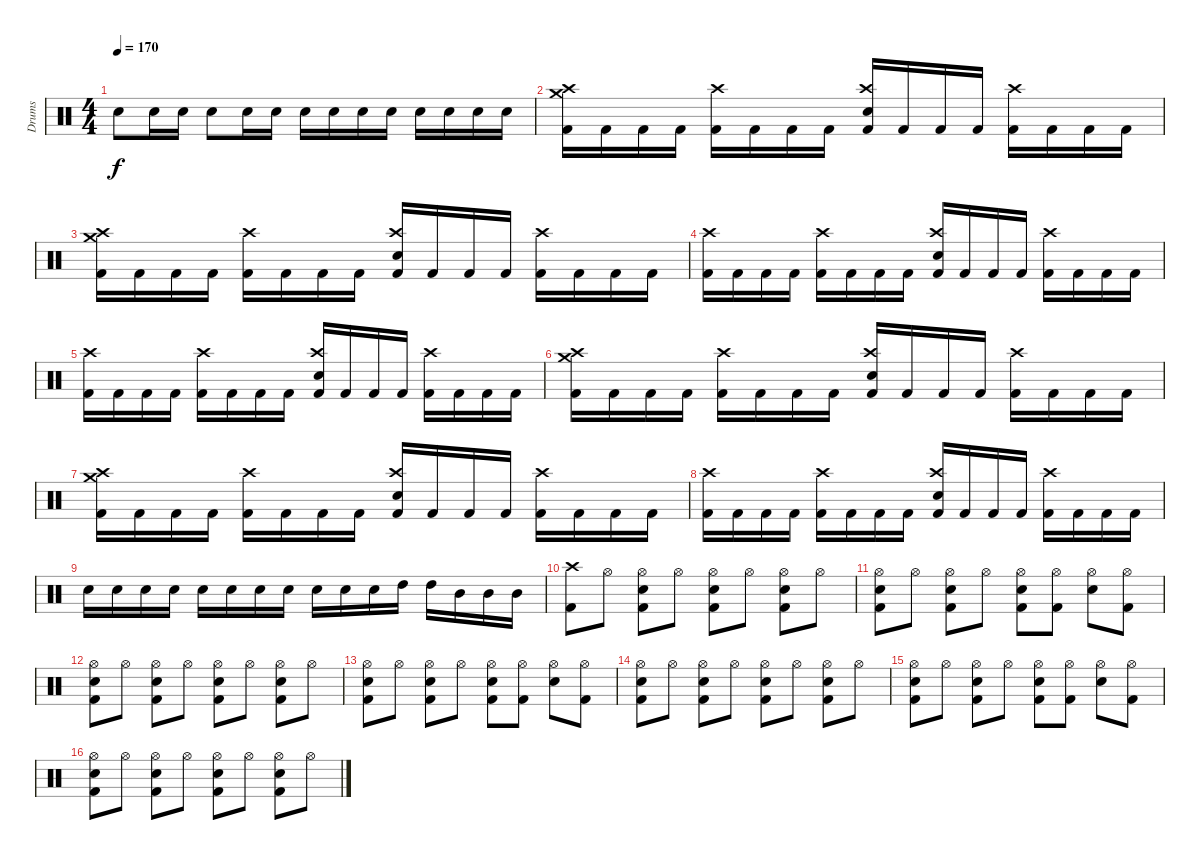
\track ("Drums" "Drums") {instrument percussion}
\staff {score}
\articulation defaults
\ts (4 4)
\tempo 170
\clef neutral
\ks c "Snare (hit) 2".8{dy f} "Snare (hit) 2".16 "Snare (hit) 2".16 "Snare (hit) 2".8 "Snare (hit) 2".16 "Snare (hit) 2".16 "Snare (hit) 2".16 "Snare (hit) 2".16 "Snare (hit) 2".16 "Snare (hit) 2".16 "Snare (hit) 2".16 "Snare (hit) 2".16 "Snare (hit) 2".16 "Snare (hit) 2".16
|
("Crash medium (hit)" "Crash high (hit)" "Kick (hit) 2").16 "Kick (hit) 2".16 "Kick (hit) 2".16 "Kick (hit) 2".16 ("Crash high (hit)" "Kick (hit) 2").16 "Kick (hit) 2".16 "Kick (hit) 2".16 "Kick (hit) 2".16 ("Crash high (hit)" "Snare (hit) 2" "Kick (hit) 2").16 "Kick (hit) 2".16 "Kick (hit) 2".16 "Kick (hit) 2".16 ("Crash high (hit)" "Kick (hit) 2").16 "Kick (hit) 2".16 "Kick (hit) 2".16 "Kick (hit) 2".16 |
("Crash medium (hit)" "Crash high (hit)" "Kick (hit) 2").16 "Kick (hit) 2".16 "Kick (hit) 2".16 "Kick (hit) 2".16 ("Crash high (hit)" "Kick (hit) 2").16 "Kick (hit) 2".16 "Kick (hit) 2".16 "Kick (hit) 2".16 ("Crash high (hit)" "Snare (hit) 2" "Kick (hit) 2").16 "Kick (hit) 2".16 "Kick (hit) 2".16 "Kick (hit) 2".16 ("Crash high (hit)" "Kick (hit) 2").16 "Kick (hit) 2".16 "Kick (hit) 2".16 "Kick (hit) 2".16 |
("Crash high (hit)" "Kick (hit) 2").16 "Kick (hit) 2".16 "Kick (hit) 2".16 "Kick (hit) 2".16 ("Crash high (hit)" "Kick (hit) 2").16 "Kick (hit) 2".16 "Kick (hit) 2".16 "Kick (hit) 2".16 ("Crash high (hit)" "Snare (hit) 2" "Kick (hit) 2").16 "Kick (hit) 2".16 "Kick (hit) 2".16 "Kick (hit) 2".16 ("Crash high (hit)" "Kick (hit) 2").16 "Kick (hit) 2".16 "Kick (hit) 2".16 "Kick (hit) 2".16 |
("Crash high (hit)" "Kick (hit) 2").16 "Kick (hit) 2".16 "Kick (hit) 2".16 "Kick (hit) 2".16 ("Crash high (hit)" "Kick (hit) 2").16 "Kick (hit) 2".16 "Kick (hit) 2".16 "Kick (hit) 2".16 ("Crash high (hit)" "Snare (hit) 2" "Kick (hit) 2").16 "Kick (hit) 2".16 "Kick (hit) 2".16 "Kick (hit) 2".16 ("Crash high (hit)" "Kick (hit) 2").16 "Kick (hit) 2".16 "Kick (hit) 2".16 "Kick (hit) 2".16 |
("Crash medium (hit)" "Crash high (hit)" "Kick (hit) 2").16 "Kick (hit) 2".16 "Kick (hit) 2".16 "Kick (hit) 2".16 ("Crash high (hit)" "Kick (hit) 2").16 "Kick (hit) 2".16 "Kick (hit) 2".16 "Kick (hit) 2".16 ("Crash high (hit)" "Snare (hit) 2" "Kick (hit) 2").16 "Kick (hit) 2".16 "Kick (hit) 2".16 "Kick (hit) 2".16 ("Crash high (hit)" "Kick (hit) 2").16 "Kick (hit) 2".16 "Kick (hit) 2".16 "Kick (hit) 2".16 |
("Crash medium (hit)" "Crash high (hit)" "Kick (hit) 2").16 "Kick (hit) 2".16 "Kick (hit) 2".16 "Kick (hit) 2".16 ("Crash high (hit)" "Kick (hit) 2").16 "Kick (hit) 2".16 "Kick (hit) 2".16 "Kick (hit) 2".16 ("Crash high (hit)" "Snare (hit) 2" "Kick (hit) 2").16 "Kick (hit) 2".16 "Kick (hit) 2".16 "Kick (hit) 2".16 ("Crash high (hit)" "Kick (hit) 2").16 "Kick (hit) 2".16 "Kick (hit) 2".16 "Kick (hit) 2".16 |
("Crash high (hit)" "Kick (hit) 2").16 "Kick (hit) 2".16 "Kick (hit) 2".16 "Kick (hit) 2".16 ("Crash high (hit)" "Kick (hit) 2").16 "Kick (hit) 2".16 "Kick (hit) 2".16 "Kick (hit) 2".16 ("Crash high (hit)" "Snare (hit) 2" "Kick (hit) 2").16 "Kick (hit) 2".16 "Kick (hit) 2".16 "Kick (hit) 2".16 ("Crash high (hit)" "Kick (hit) 2").16 "Kick (hit) 2".16 "Kick (hit) 2".16 "Kick (hit) 2".16 |
"Snare (hit) 2".16 "Snare (hit) 2".16 "Snare (hit) 2".16 "Snare (hit) 2".16 "Snare (hit) 2".16 "Snare (hit) 2".16 "Snare (hit) 2".16 "Snare (hit) 2".16 "Snare (hit) 2".16 "Snare (hit) 2".16 "Snare (hit) 2".16 "High Tom (hit)".16 "High Tom (hit)".16 "Mid Tom (hit)".16 "Mid Tom (hit)".16 "Mid Tom (hit)".16 |
("Crash high (hit)" "Kick (hit) 2").8 "Hi-Hat (open)".8 ("Hi-Hat (open)" "Snare (hit) 2" "Kick (hit) 2").8 "Hi-Hat (open)".8 ("Hi-Hat (open)" "Snare (hit) 2" "Kick (hit) 2").8 "Hi-Hat (open)".8 ("Hi-Hat (open)" "Snare (hit) 2" "Kick (hit) 2").8 "Hi-Hat (open)".8 |
("Hi-Hat (open)" "Snare (hit) 2" "Kick (hit) 2").8 "Hi-Hat (open)".8 ("Hi-Hat (open)" "Snare (hit) 2" "Kick (hit) 2").8 "Hi-Hat (open)".8 ("Hi-Hat (open)" "Snare (hit) 2" "Kick (hit) 2").8 ("Hi-Hat (open)" "Kick (hit) 2").8 ("Hi-Hat (open)" "Snare (hit) 2").8 ("Hi-Hat (open)" "Kick (hit) 2").8 |
("Hi-Hat (open)" "Snare (hit) 2" "Kick (hit) 2").8 "Hi-Hat (open)".8 ("Hi-Hat (open)" "Snare (hit) 2" "Kick (hit) 2").8 "Hi-Hat (open)".8 ("Hi-Hat (open)" "Snare (hit) 2" "Kick (hit) 2").8 "Hi-Hat (open)".8 ("Hi-Hat (open)" "Snare (hit) 2" "Kick (hit) 2").8 "Hi-Hat (open)".8 |
("Hi-Hat (open)" "Snare (hit) 2" "Kick (hit) 2").8 "Hi-Hat (open)".8 ("Hi-Hat (open)" "Snare (hit) 2" "Kick (hit) 2").8 "Hi-Hat (open)".8 ("Hi-Hat (open)" "Snare (hit) 2" "Kick (hit) 2").8 ("Hi-Hat (open)" "Kick (hit) 2").8 ("Hi-Hat (open)" "Snare (hit) 2").8 ("Hi-Hat (open)" "Kick (hit) 2").8 |
("Hi-Hat (open)" "Snare (hit) 2" "Kick (hit) 2").8 "Hi-Hat (open)".8 ("Hi-Hat (open)" "Snare (hit) 2" "Kick (hit) 2").8 "Hi-Hat (open)".8 ("Hi-Hat (open)" "Snare (hit) 2" "Kick (hit) 2").8 "Hi-Hat (open)".8 ("Hi-Hat (open)" "Snare (hit) 2" "Kick (hit) 2").8 "Hi-Hat (open)".8 |
("Hi-Hat (open)" "Snare (hit) 2" "Kick (hit) 2").8 "Hi-Hat (open)".8 ("Hi-Hat (open)" "Snare (hit) 2" "Kick (hit) 2").8 "Hi-Hat (open)".8 ("Hi-Hat (open)" "Snare (hit) 2" "Kick (hit) 2").8 ("Hi-Hat (open)" "Kick (hit) 2").8 ("Hi-Hat (open)" "Snare (hit) 2").8 ("Hi-Hat (open)" "Kick (hit) 2").8 |
("Hi-Hat (open)" "Snare (hit) 2" "Kick (hit) 2").8 "Hi-Hat (open)".8 ("Hi-Hat (open)" "Snare (hit) 2" "Kick (hit) 2").8 "Hi-Hat (open)".8 ("Hi-Hat (open)" "Snare (hit) 2" "Kick (hit) 2").8 "Hi-Hat (open)".8 ("Hi-Hat (open)" "Snare (hit) 2" "Kick (hit) 2").8 "Hi-Hat (open)".8
